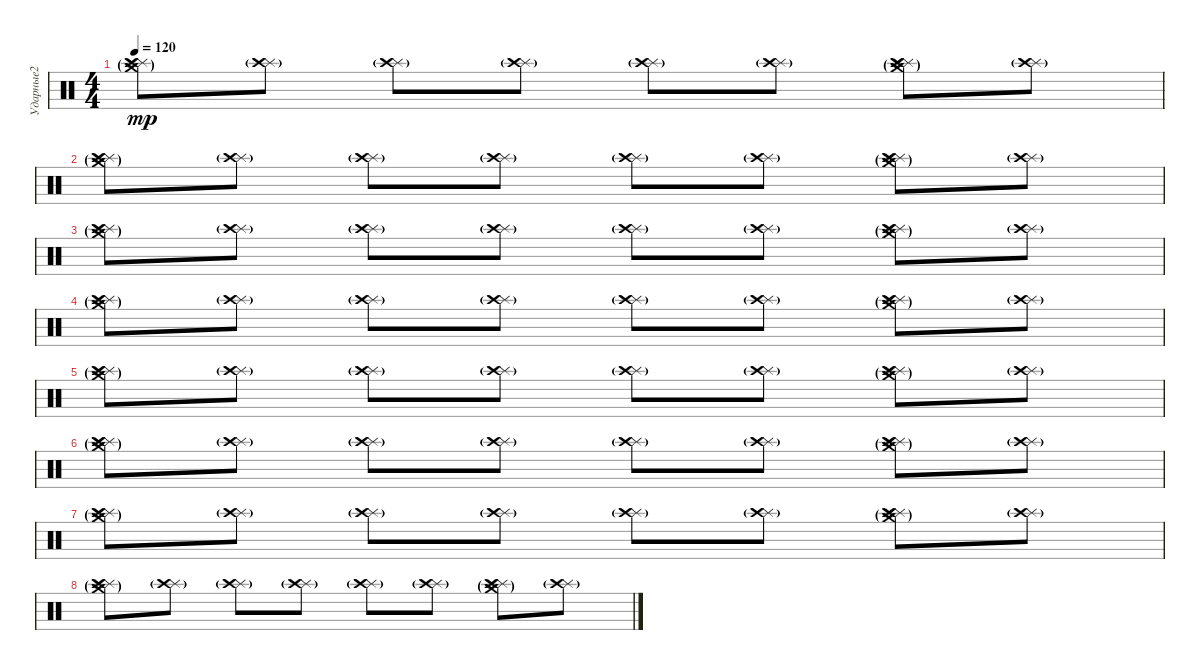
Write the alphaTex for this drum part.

\track ("Ударные2" "Ударные2") {instrument percussion bank 2}
\staff {score}
\articulation defaults
\ts (4 4)
\tempo 120
\clef neutral
\ks c
("Splash (hit)" "Crash high (hit)"{g} "Splash (hit)"{g} "Crash medium (hit)"{g}).8{dy mp} ("Splash (hit)"{g} "Crash high (hit)"{g}).8 ("Splash (hit)"{g} "Crash high (hit)"{g}).8 ("Splash (hit)"{g} "Crash high (hit)"{g}).8 ("Splash (hit)"{g} "Crash high (hit)"{g}).8 ("Splash (hit)"{g} "Crash high (hit)"{g}).8 ("Splash (hit)" "Crash high (hit)"{g} "Splash (hit)"{g} "Crash medium (hit)"{g}).8 ("Splash (hit)"{g} "Crash high (hit)"{g}).8 |
("Splash (hit)" "Crash high (hit)"{g} "Splash (hit)"{g} "Crash medium (hit)"{g}).8 ("Splash (hit)"{g} "Crash high (hit)"{g}).8 ("Splash (hit)"{g} "Crash high (hit)"{g}).8 ("Splash (hit)"{g} "Crash high (hit)"{g}).8 ("Splash (hit)"{g} "Crash high (hit)"{g}).8 ("Splash (hit)"{g} "Crash high (hit)"{g}).8 ("Splash (hit)" "Crash high (hit)"{g} "Splash (hit)"{g} "Crash medium (hit)"{g}).8 ("Splash (hit)"{g} "Crash high (hit)"{g}).8 |
("Splash (hit)" "Crash high (hit)"{g} "Splash (hit)"{g} "Crash medium (hit)"{g}).8 ("Splash (hit)"{g} "Crash high (hit)"{g}).8 ("Splash (hit)"{g} "Crash high (hit)"{g}).8 ("Splash (hit)"{g} "Crash high (hit)"{g}).8 ("Splash (hit)"{g} "Crash high (hit)"{g}).8 ("Splash (hit)"{g} "Crash high (hit)"{g}).8 ("Splash (hit)" "Crash high (hit)"{g} "Splash (hit)"{g} "Crash medium (hit)"{g}).8 ("Splash (hit)"{g} "Crash high (hit)"{g}).8 |
("Splash (hit)" "Crash high (hit)"{g} "Splash (hit)"{g} "Crash medium (hit)"{g}).8 ("Splash (hit)"{g} "Crash high (hit)"{g}).8 ("Splash (hit)"{g} "Crash high (hit)"{g}).8 ("Splash (hit)"{g} "Crash high (hit)"{g}).8 ("Splash (hit)"{g} "Crash high (hit)"{g}).8 ("Splash (hit)"{g} "Crash high (hit)"{g}).8 ("Splash (hit)"{g} "Crash high (hit)"{g} "Splash (hit)"{g} "Crash medium (hit)"{g}).8 ("Splash (hit)"{g} "Crash high (hit)"{g}).8 |
("Splash (hit)" "Crash high (hit)"{g} "Splash (hit)"{g} "Crash medium (hit)"{g}).8 ("Splash (hit)"{g} "Crash high (hit)"{g}).8 ("Splash (hit)"{g} "Crash high (hit)"{g}).8 ("Splash (hit)"{g} "Crash high (hit)"{g}).8 ("Splash (hit)"{g} "Crash high (hit)"{g}).8 ("Splash (hit)"{g} "Crash high (hit)"{g}).8 ("Splash (hit)" "Crash high (hit)"{g} "Splash (hit)"{g} "Crash medium (hit)"{g}).8 ("Splash (hit)"{g} "Crash high (hit)"{g}).8 |
("Splash (hit)" "Crash high (hit)"{g} "Splash (hit)"{g} "Crash medium (hit)"{g}).8 ("Splash (hit)"{g} "Crash high (hit)"{g}).8 ("Splash (hit)"{g} "Crash high (hit)"{g}).8 ("Splash (hit)"{g} "Crash high (hit)"{g}).8 ("Splash (hit)"{g} "Crash high (hit)"{g}).8 ("Splash (hit)"{g} "Crash high (hit)"{g}).8 ("Splash (hit)" "Crash high (hit)"{g} "Splash (hit)"{g} "Crash medium (hit)"{g}).8 ("Splash (hit)"{g} "Crash high (hit)"{g}).8 |
("Splash (hit)" "Crash high (hit)"{g} "Splash (hit)"{g} "Crash medium (hit)"{g}).8 ("Splash (hit)"{g} "Crash high (hit)"{g}).8 ("Splash (hit)"{g} "Crash high (hit)"{g}).8 ("Splash (hit)"{g} "Crash high (hit)"{g}).8 ("Splash (hit)"{g} "Crash high (hit)"{g}).8 ("Splash (hit)"{g} "Crash high (hit)"{g}).8 ("Splash (hit)" "Crash high (hit)"{g} "Splash (hit)"{g} "Crash medium (hit)"{g}).8 ("Splash (hit)"{g} "Crash high (hit)"{g}).8 |
("Splash (hit)" "Crash high (hit)"{g} "Splash (hit)"{g} "Crash medium (hit)"{g}).8 ("Splash (hit)"{g} "Crash high (hit)"{g}).8 ("Splash (hit)"{g} "Crash high (hit)"{g}).8 ("Splash (hit)"{g} "Crash high (hit)"{g}).8 ("Splash (hit)"{g} "Crash high (hit)"{g}).8 ("Splash (hit)"{g} "Crash high (hit)"{g}).8 ("Splash (hit)"{g} "Crash high (hit)"{g} "Splash (hit)"{g} "Crash medium (hit)"{g}).8 ("Splash (hit)"{g} "Crash high (hit)"{g}).8
